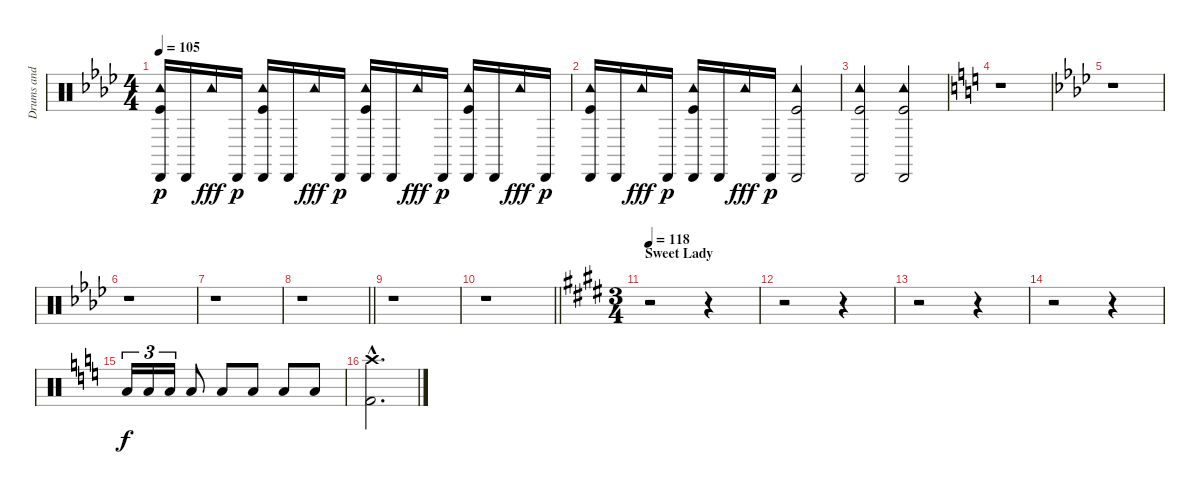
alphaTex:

\track ("Drums and percussion" "Drums and ") {instrument percussion}
\staff {score}
\articulation defaults
\ts (4 4)
\tempo 105
\clef neutral
\ks ab
("Cabasa (hit)" "Tambourine (hit)" "Kick (hit)").16{dy p} "Cabasa (hit)".16 "Tambourine (hit)".16{dy fff} "Cabasa (hit)".16{dy p} ("Cabasa (hit)" "Tambourine (hit)" "Kick (hit)").16 "Cabasa (hit)".16 "Tambourine (hit)".16{dy fff} "Cabasa (hit)".16{dy p} ("Cabasa (hit)" "Tambourine (hit)" "Kick (hit)").16 "Cabasa (hit)".16 "Tambourine (hit)".16{dy fff} "Cabasa (hit)".16{dy p} ("Cabasa (hit)" "Tambourine (hit)" "Kick (hit)").16 "Cabasa (hit)".16 "Tambourine (hit)".16{dy fff} "Cabasa (hit)".16{dy p} |
("Cabasa (hit)" "Tambourine (hit)" "Kick (hit)").16 "Cabasa (hit)".16 "Tambourine (hit)".16{dy fff} "Cabasa (hit)".16{dy p} ("Cabasa (hit)" "Tambourine (hit)" "Kick (hit)").16 "Cabasa (hit)".16 "Tambourine (hit)".16{dy fff} "Cabasa (hit)".16{dy p} ("Cabasa (hit)" "Tambourine (hit)" "Kick (hit)").2 |
("Cabasa (hit)" "Tambourine (hit)" "Kick (hit)").2 ("Cabasa (hit)" "Tambourine (hit)" "Kick (hit)").2 |
\ks c
r.1 |
\ks ab
r.1 |
r.1 |
r.1 |
\barLineRight lightlight
r.1 |
r.1 |
\barLineRight lightlight
r.1 |
\ts (3 4)
\section ("" "Sweet Lady")
\tempo 118
\ks e
r.2 r.4 |
r.2 r.4 |
r.2 r.4 |
r.2 r.4 |
\ks c "Low Tom (hit)".16{tu (3 2) dy f} "Low Tom (hit)".16{tu (3 2)} "Low Tom (hit)".16{tu (3 2)} "Low Tom (hit)".8 "Low Tom (hit)".8 "Low Tom (hit)".8 "Low Tom (hit)".8 "Low Tom (hit)".8
|
("Crash high (hit)"{hac} "Kick (hit) 2"{hac}).2{d}
